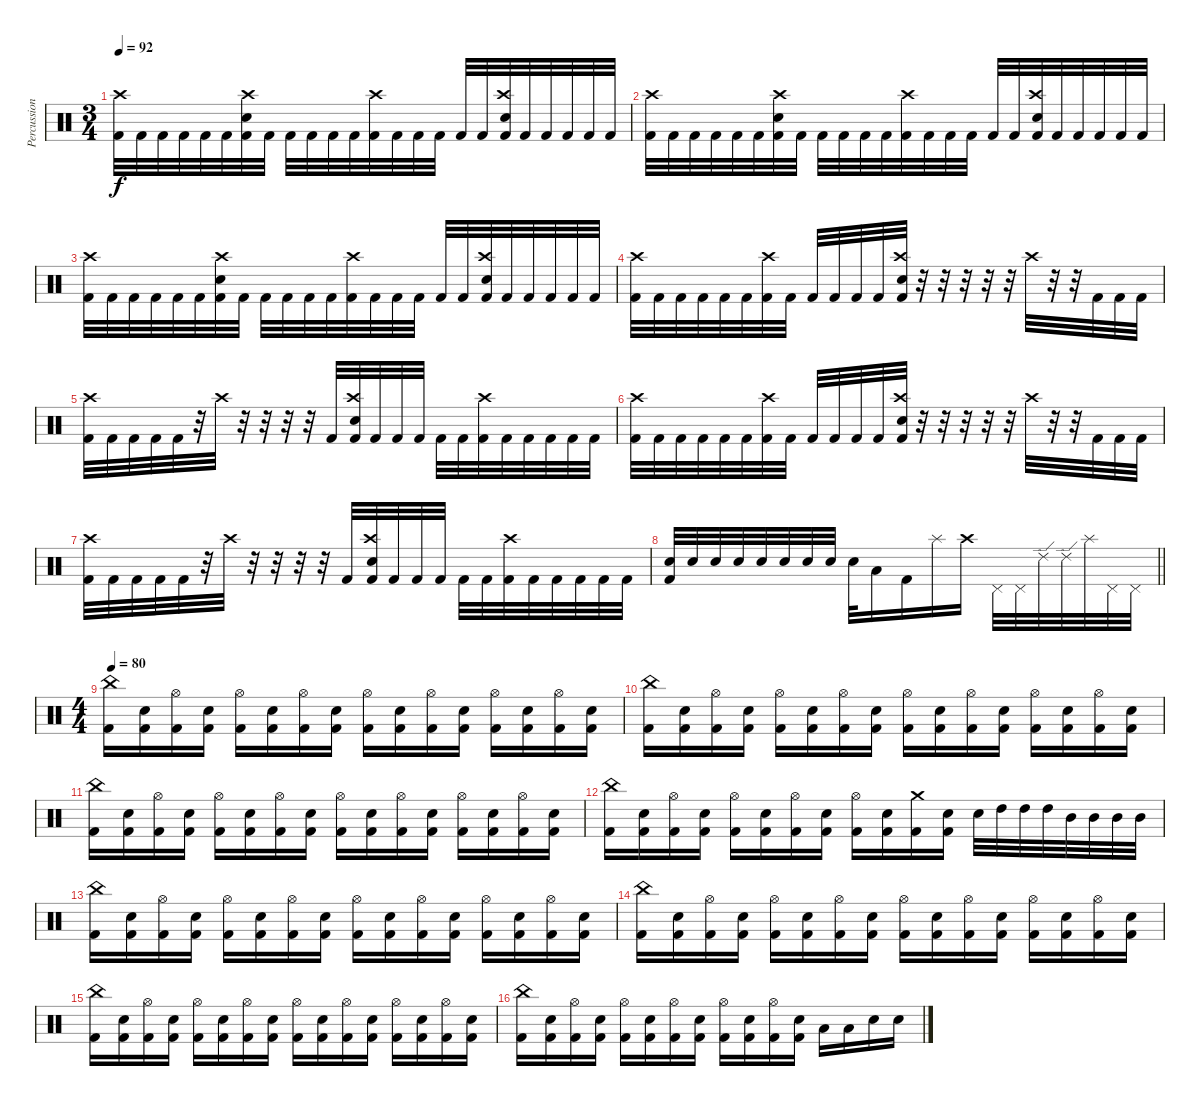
\track ("Percussion [Optional]" "Percussion") {instrument percussion}
\staff {score}
\articulation defaults
\ts (3 4)
\tempo 92
\clef neutral
\ks c
("Kick (hit) 2" "Crash high (hit)").32{dy f} "Kick (hit) 2".32 "Kick (hit) 2".32 "Kick (hit) 2".32 "Kick (hit) 2".32 "Kick (hit) 2".32 ("Kick (hit) 2" "Crash high (hit)" "Electric Snare (hit)").32 "Kick (hit) 2".32 "Kick (hit) 2".32 "Kick (hit) 2".32 "Kick (hit) 2".32 "Kick (hit) 2".32 ("Kick (hit) 2" "Crash high (hit)").32 "Kick (hit) 2".32 "Kick (hit) 2".32 "Kick (hit) 2".32 "Kick (hit) 2".32 "Kick (hit) 2".32 ("Kick (hit) 2" "Electric Snare (hit)" "Crash high (hit)").32 "Kick (hit) 2".32 "Kick (hit) 2".32 "Kick (hit) 2".32 "Kick (hit) 2".32 "Kick (hit) 2".32 |
("Kick (hit) 2" "Crash high (hit)").32 "Kick (hit) 2".32 "Kick (hit) 2".32 "Kick (hit) 2".32 "Kick (hit) 2".32 "Kick (hit) 2".32 ("Kick (hit) 2" "Crash high (hit)" "Electric Snare (hit)").32 "Kick (hit) 2".32 "Kick (hit) 2".32 "Kick (hit) 2".32 "Kick (hit) 2".32 "Kick (hit) 2".32 ("Kick (hit) 2" "Crash high (hit)").32 "Kick (hit) 2".32 "Kick (hit) 2".32 "Kick (hit) 2".32 "Kick (hit) 2".32 "Kick (hit) 2".32 ("Kick (hit) 2" "Electric Snare (hit)" "Crash high (hit)").32 "Kick (hit) 2".32 "Kick (hit) 2".32 "Kick (hit) 2".32 "Kick (hit) 2".32 "Kick (hit) 2".32 |
("Kick (hit) 2" "Crash high (hit)").32 "Kick (hit) 2".32 "Kick (hit) 2".32 "Kick (hit) 2".32 "Kick (hit) 2".32 "Kick (hit) 2".32 ("Kick (hit) 2" "Crash high (hit)" "Electric Snare (hit)").32 "Kick (hit) 2".32 "Kick (hit) 2".32 "Kick (hit) 2".32 "Kick (hit) 2".32 "Kick (hit) 2".32 ("Kick (hit) 2" "Crash high (hit)").32 "Kick (hit) 2".32 "Kick (hit) 2".32 "Kick (hit) 2".32 "Kick (hit) 2".32 "Kick (hit) 2".32 ("Kick (hit) 2" "Electric Snare (hit)" "Crash high (hit)").32 "Kick (hit) 2".32 "Kick (hit) 2".32 "Kick (hit) 2".32 "Kick (hit) 2".32 "Kick (hit) 2".32 |
("Kick (hit) 2" "Crash high (hit)").32 "Kick (hit) 2".32 "Kick (hit) 2".32 "Kick (hit) 2".32 "Kick (hit) 2".32 "Kick (hit) 2".32 ("Kick (hit) 2" "Crash high (hit)").32 "Kick (hit) 2".32 "Kick (hit) 2".32 "Kick (hit) 2".32 "Kick (hit) 2".32 "Kick (hit) 2".32 ("Kick (hit) 2" "Electric Snare (hit)" "Crash high (hit)").32 r.32 r.32 r.32 r.32 r.32 "Crash high (hit)".32 r.32 r.32 "Kick (hit) 2".32 "Kick (hit) 2".32 "Kick (hit) 2".32 |
("Kick (hit) 2" "Crash high (hit)").32 "Kick (hit) 2".32 "Kick (hit) 2".32 "Kick (hit) 2".32 "Kick (hit) 2".32 r.32 "Crash high (hit)".32 r.32 r.32 r.32 r.32 "Kick (hit) 2".32 ("Kick (hit) 2" "Electric Snare (hit)" "Crash high (hit)").32 "Kick (hit) 2".32 "Kick (hit) 2".32 "Kick (hit) 2".32 "Kick (hit) 2".32 "Kick (hit) 2".32 ("Kick (hit) 2" "Crash high (hit)").32 "Kick (hit) 2".32 "Kick (hit) 2".32 "Kick (hit) 2".32 "Kick (hit) 2".32 "Kick (hit) 2".32 |
("Kick (hit) 2" "Crash high (hit)").32 "Kick (hit) 2".32 "Kick (hit) 2".32 "Kick (hit) 2".32 "Kick (hit) 2".32 "Kick (hit) 2".32 ("Kick (hit) 2" "Crash high (hit)").32 "Kick (hit) 2".32 "Kick (hit) 2".32 "Kick (hit) 2".32 "Kick (hit) 2".32 "Kick (hit) 2".32 ("Kick (hit) 2" "Electric Snare (hit)" "Crash high (hit)").32 r.32 r.32 r.32 r.32 r.32 "Crash high (hit)".32 r.32 r.32 "Kick (hit) 2".32 "Kick (hit) 2".32 "Kick (hit) 2".32 |
("Kick (hit) 2" "Crash high (hit)").32 "Kick (hit) 2".32 "Kick (hit) 2".32 "Kick (hit) 2".32 "Kick (hit) 2".32 r.32 "Crash high (hit)".32 r.32 r.32 r.32 r.32 "Kick (hit) 2".32 ("Kick (hit) 2" "Electric Snare (hit)" "Crash high (hit)").32 "Kick (hit) 2".32 "Kick (hit) 2".32 "Kick (hit) 2".32 "Kick (hit) 2".32 "Kick (hit) 2".32 ("Kick (hit) 2" "Crash high (hit)").32 "Kick (hit) 2".32 "Kick (hit) 2".32 "Kick (hit) 2".32 "Kick (hit) 2".32 "Kick (hit) 2".32 |
\barLineRight lightlight
("Kick (hit) 2" "Electric Snare (hit)").32 "Electric Snare (hit)".32 "Electric Snare (hit)".32 "Electric Snare (hit)".32 "Electric Snare (hit)".32 "Electric Snare (hit)".32 "Electric Snare (hit)".32 "Electric Snare (hit)".32 "Electric Snare (hit)".32 "Low Tom (hit)".16 "Kick (hit) 2".16 "Splash (hit)".16 "Crash high (hit)".16 "Pedal Hi-Hat (hit)".32 "Pedal Hi-Hat (hit)".32 "Ride (edge) 2".32 "Ride (edge) 2".32 "Splash (hit)".32 "Pedal Hi-Hat (hit)".32 "Pedal Hi-Hat (hit)".32 |
\ts (4 4)
\tempo 80
("Kick (hit) 2" "China (hit)").16 ("Kick (hit) 2" "Electric Snare (hit)").16 ("Kick (hit) 2" "Hi-Hat (open)").16 ("Kick (hit) 2" "Electric Snare (hit)").16 ("Kick (hit) 2" "Hi-Hat (open)").16 ("Kick (hit) 2" "Electric Snare (hit)").16 ("Kick (hit) 2" "Hi-Hat (open)").16 ("Kick (hit) 2" "Electric Snare (hit)").16 ("Kick (hit) 2" "Hi-Hat (open)").16 ("Kick (hit) 2" "Electric Snare (hit)").16 ("Kick (hit) 2" "Hi-Hat (open)").16 ("Kick (hit) 2" "Electric Snare (hit)").16 ("Kick (hit) 2" "Hi-Hat (open)").16 ("Kick (hit) 2" "Electric Snare (hit)").16 ("Kick (hit) 2" "Hi-Hat (open)").16 ("Kick (hit) 2" "Electric Snare (hit)").16 |
("Kick (hit) 2" "China (hit)").16 ("Kick (hit) 2" "Electric Snare (hit)").16 ("Kick (hit) 2" "Hi-Hat (open)").16 ("Kick (hit) 2" "Electric Snare (hit)").16 ("Kick (hit) 2" "Hi-Hat (open)").16 ("Kick (hit) 2" "Electric Snare (hit)").16 ("Kick (hit) 2" "Hi-Hat (open)").16 ("Kick (hit) 2" "Electric Snare (hit)").16 ("Kick (hit) 2" "Hi-Hat (open)").16 ("Kick (hit) 2" "Electric Snare (hit)").16 ("Kick (hit) 2" "Hi-Hat (open)").16 ("Kick (hit) 2" "Electric Snare (hit)").16 ("Kick (hit) 2" "Hi-Hat (open)").16 ("Kick (hit) 2" "Electric Snare (hit)").16 ("Kick (hit) 2" "Hi-Hat (open)").16 ("Kick (hit) 2" "Electric Snare (hit)").16 |
("Kick (hit) 2" "China (hit)").16 ("Kick (hit) 2" "Electric Snare (hit)").16 ("Kick (hit) 2" "Hi-Hat (open)").16 ("Kick (hit) 2" "Electric Snare (hit)").16 ("Kick (hit) 2" "Hi-Hat (open)").16 ("Kick (hit) 2" "Electric Snare (hit)").16 ("Kick (hit) 2" "Hi-Hat (open)").16 ("Kick (hit) 2" "Electric Snare (hit)").16 ("Kick (hit) 2" "Hi-Hat (open)").16 ("Kick (hit) 2" "Electric Snare (hit)").16 ("Kick (hit) 2" "Hi-Hat (open)").16 ("Kick (hit) 2" "Electric Snare (hit)").16 ("Kick (hit) 2" "Hi-Hat (open)").16 ("Kick (hit) 2" "Electric Snare (hit)").16 ("Kick (hit) 2" "Hi-Hat (open)").16 ("Kick (hit) 2" "Electric Snare (hit)").16 |
("Kick (hit) 2" "China (hit)").16 ("Kick (hit) 2" "Electric Snare (hit)").16 ("Kick (hit) 2" "Hi-Hat (open)").16 ("Kick (hit) 2" "Electric Snare (hit)").16 ("Kick (hit) 2" "Hi-Hat (open)").16 ("Kick (hit) 2" "Electric Snare (hit)").16 ("Kick (hit) 2" "Hi-Hat (open)").16 ("Kick (hit) 2" "Electric Snare (hit)").16 ("Kick (hit) 2" "Hi-Hat (open)").16 ("Kick (hit) 2" "Electric Snare (hit)").16 ("Kick (hit) 2" "Crash medium (hit)").16 ("Kick (hit) 2" "Electric Snare (hit)").16 "Electric Snare (hit)".32 "High Tom (hit)".32 "High Tom (hit)".32 "High Tom (hit)".32 "Mid Tom (hit)".32 "Mid Tom (hit)".32 "Mid Tom (hit)".32 "Mid Tom (hit)".32 |
("Kick (hit) 2" "China (hit)").16 ("Kick (hit) 2" "Electric Snare (hit)").16 ("Kick (hit) 2" "Hi-Hat (open)").16 ("Kick (hit) 2" "Electric Snare (hit)").16 ("Kick (hit) 2" "Hi-Hat (open)").16 ("Kick (hit) 2" "Electric Snare (hit)").16 ("Kick (hit) 2" "Hi-Hat (open)").16 ("Kick (hit) 2" "Electric Snare (hit)").16 ("Kick (hit) 2" "Hi-Hat (open)").16 ("Kick (hit) 2" "Electric Snare (hit)").16 ("Kick (hit) 2" "Hi-Hat (open)").16 ("Kick (hit) 2" "Electric Snare (hit)").16 ("Kick (hit) 2" "Hi-Hat (open)").16 ("Kick (hit) 2" "Electric Snare (hit)").16 ("Kick (hit) 2" "Hi-Hat (open)").16 ("Kick (hit) 2" "Electric Snare (hit)").16 |
("Kick (hit) 2" "China (hit)").16 ("Kick (hit) 2" "Electric Snare (hit)").16 ("Kick (hit) 2" "Hi-Hat (open)").16 ("Kick (hit) 2" "Electric Snare (hit)").16 ("Kick (hit) 2" "Hi-Hat (open)").16 ("Kick (hit) 2" "Electric Snare (hit)").16 ("Kick (hit) 2" "Hi-Hat (open)").16 ("Kick (hit) 2" "Electric Snare (hit)").16 ("Kick (hit) 2" "Hi-Hat (open)").16 ("Kick (hit) 2" "Electric Snare (hit)").16 ("Kick (hit) 2" "Hi-Hat (open)").16 ("Kick (hit) 2" "Electric Snare (hit)").16 ("Kick (hit) 2" "Hi-Hat (open)").16 ("Kick (hit) 2" "Electric Snare (hit)").16 ("Kick (hit) 2" "Hi-Hat (open)").16 ("Kick (hit) 2" "Electric Snare (hit)").16 |
("Kick (hit) 2" "China (hit)").16 ("Kick (hit) 2" "Electric Snare (hit)").16 ("Kick (hit) 2" "Hi-Hat (open)").16 ("Kick (hit) 2" "Electric Snare (hit)").16 ("Kick (hit) 2" "Hi-Hat (open)").16 ("Kick (hit) 2" "Electric Snare (hit)").16 ("Kick (hit) 2" "Hi-Hat (open)").16 ("Kick (hit) 2" "Electric Snare (hit)").16 ("Kick (hit) 2" "Hi-Hat (open)").16 ("Kick (hit) 2" "Electric Snare (hit)").16 ("Kick (hit) 2" "Hi-Hat (open)").16 ("Kick (hit) 2" "Electric Snare (hit)").16 ("Kick (hit) 2" "Hi-Hat (open)").16 ("Kick (hit) 2" "Electric Snare (hit)").16 ("Kick (hit) 2" "Hi-Hat (open)").16 ("Kick (hit) 2" "Electric Snare (hit)").16 |
("Kick (hit) 2" "China (hit)").16 ("Kick (hit) 2" "Electric Snare (hit)").16 ("Kick (hit) 2" "Hi-Hat (open)").16 ("Kick (hit) 2" "Electric Snare (hit)").16 ("Kick (hit) 2" "Hi-Hat (open)").16 ("Kick (hit) 2" "Electric Snare (hit)").16 ("Kick (hit) 2" "Hi-Hat (open)").16 ("Kick (hit) 2" "Electric Snare (hit)").16 ("Kick (hit) 2" "Hi-Hat (open)").16 ("Kick (hit) 2" "Electric Snare (hit)").16 ("Kick (hit) 2" "Hi-Hat (open)").16 ("Kick (hit) 2" "Electric Snare (hit)").16 "Low Tom (hit)".16 "Low Floor Tom (hit)".16 "Electric Snare (hit)".16 "Electric Snare (hit)".16
